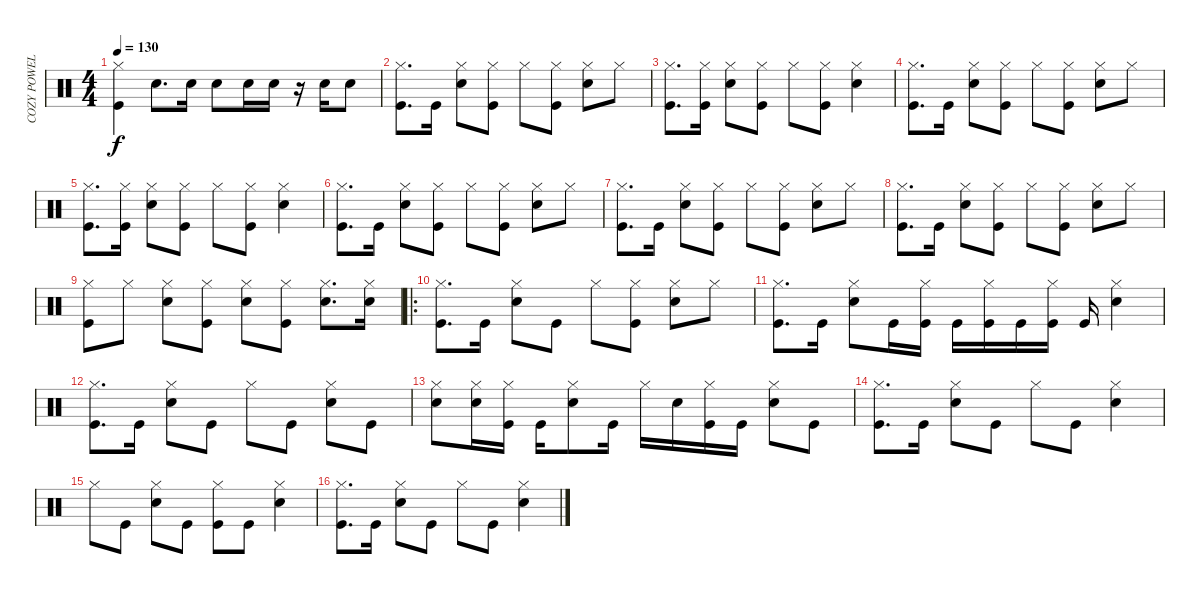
\track ("COZY POWELL" "COZY POWEL") {instrument percussion}
\staff {score}
\articulation defaults
\ts (4 4)
\tempo 130
\clef neutral
\ks c
("Hi-Hat (closed)" "Kick (hit)").4{dy f} "Snare (hit) 2".8{d} "Snare (hit) 2".16 "Snare (hit) 2".8 "Snare (hit) 2".16 "Snare (hit) 2".16 r.16 "Snare (hit) 2".16 "Snare (hit) 2".8 |
("Hi-Hat (closed)" "Kick (hit)").8{d} "Kick (hit)".16 ("Hi-Hat (closed)" "Snare (hit) 2").8 ("Hi-Hat (closed)" "Kick (hit)").8 "Hi-Hat (closed)".8 ("Hi-Hat (closed)" "Kick (hit)").8 ("Hi-Hat (closed)" "Snare (hit) 2").8 "Hi-Hat (closed)".8 |
("Hi-Hat (closed)" "Kick (hit)").8{d} ("Hi-Hat (closed)" "Kick (hit)").16 ("Hi-Hat (closed)" "Snare (hit) 2").8 ("Hi-Hat (closed)" "Kick (hit)").8 "Hi-Hat (closed)".8 ("Hi-Hat (closed)" "Kick (hit)").8 ("Hi-Hat (closed)" "Snare (hit) 2").4 |
("Hi-Hat (closed)" "Kick (hit)").8{d} "Kick (hit)".16 ("Hi-Hat (closed)" "Snare (hit) 2").8 ("Hi-Hat (closed)" "Kick (hit)").8 "Hi-Hat (closed)".8 ("Hi-Hat (closed)" "Kick (hit)").8 ("Hi-Hat (closed)" "Snare (hit) 2").8 "Hi-Hat (closed)".8 |
("Hi-Hat (closed)" "Kick (hit)").8{d} ("Hi-Hat (closed)" "Kick (hit)").16 ("Hi-Hat (closed)" "Snare (hit) 2").8 ("Hi-Hat (closed)" "Kick (hit)").8 "Hi-Hat (closed)".8 ("Hi-Hat (closed)" "Kick (hit)").8 ("Hi-Hat (closed)" "Snare (hit) 2").4 |
("Hi-Hat (closed)" "Kick (hit)").8{d} "Kick (hit)".16 ("Hi-Hat (closed)" "Snare (hit) 2").8 ("Hi-Hat (closed)" "Kick (hit)").8 "Hi-Hat (closed)".8 ("Hi-Hat (closed)" "Kick (hit)").8 ("Hi-Hat (closed)" "Snare (hit) 2").8 "Hi-Hat (closed)".8 |
("Hi-Hat (closed)" "Kick (hit)").8{d} "Kick (hit)".16 ("Hi-Hat (closed)" "Snare (hit) 2").8 ("Hi-Hat (closed)" "Kick (hit)").8 "Hi-Hat (closed)".8 ("Hi-Hat (closed)" "Kick (hit)").8 ("Hi-Hat (closed)" "Snare (hit) 2").8 "Hi-Hat (closed)".8 |
("Hi-Hat (closed)" "Kick (hit)").8{d} "Kick (hit)".16 ("Hi-Hat (closed)" "Snare (hit) 2").8 ("Hi-Hat (closed)" "Kick (hit)").8 "Hi-Hat (closed)".8 ("Hi-Hat (closed)" "Kick (hit)").8 ("Hi-Hat (closed)" "Snare (hit) 2").8 "Hi-Hat (closed)".8 |
("Hi-Hat (closed)" "Kick (hit)").8 "Hi-Hat (closed)".8 ("Hi-Hat (closed)" "Snare (hit) 2").8 ("Hi-Hat (closed)" "Kick (hit)").8 ("Hi-Hat (closed)" "Snare (hit) 2").8 ("Hi-Hat (closed)" "Kick (hit)").8 ("Hi-Hat (closed)" "Snare (hit) 2").8{d} ("Hi-Hat (closed)" "Snare (hit) 2").16 |
\ro
("Hi-Hat (closed)" "Kick (hit)").8{d} "Kick (hit)".16 ("Hi-Hat (closed)" "Snare (hit) 2").8 "Kick (hit)".8 "Hi-Hat (closed)".8 ("Hi-Hat (closed)" "Kick (hit)").8 ("Hi-Hat (closed)" "Snare (hit) 2").8 "Hi-Hat (closed)".8 |
("Hi-Hat (closed)" "Kick (hit)").8{d} "Kick (hit)".16 ("Hi-Hat (closed)" "Snare (hit) 2").8 "Kick (hit)".16 ("Hi-Hat (closed)" "Kick (hit)").16 "Kick (hit)".16 ("Hi-Hat (closed)" "Kick (hit)").16 "Kick (hit)".16 ("Hi-Hat (closed)" "Kick (hit)").16 "Kick (hit)".16 ("Hi-Hat (closed)" "Snare (hit) 2").4 |
("Hi-Hat (closed)" "Kick (hit)").8{d} "Kick (hit)".16 ("Hi-Hat (closed)" "Snare (hit) 2").8 "Kick (hit)".8 "Hi-Hat (closed)".8 "Kick (hit)".8 ("Hi-Hat (closed)" "Snare (hit) 2").8 "Kick (hit)".8 |
("Hi-Hat (closed)" "Snare (hit) 2").8 ("Hi-Hat (closed)" "Snare (hit) 2").16 ("Hi-Hat (closed)" "Kick (hit)").16 "Kick (hit)".16 ("Hi-Hat (closed)" "Snare (hit) 2").8 "Kick (hit)".16 "Hi-Hat (closed)".16 "Snare (hit) 2".16 ("Hi-Hat (closed)" "Kick (hit)").16 "Kick (hit)".16 ("Hi-Hat (closed)" "Snare (hit) 2").8 "Kick (hit)".8 |
("Hi-Hat (closed)" "Kick (hit)").8{d} "Kick (hit)".16 ("Hi-Hat (closed)" "Snare (hit) 2").8 "Kick (hit)".8 "Hi-Hat (closed)".8 "Kick (hit)".8 ("Hi-Hat (closed)" "Snare (hit) 2").4 |
"Hi-Hat (closed)".8 "Kick (hit)".8 ("Hi-Hat (closed)" "Snare (hit) 2").8 "Kick (hit)".8 ("Hi-Hat (closed)" "Kick (hit)").8 "Kick (hit)".8 ("Hi-Hat (closed)" "Snare (hit) 2").4 |
("Hi-Hat (closed)" "Kick (hit)").8{d} "Kick (hit)".16 ("Hi-Hat (closed)" "Snare (hit) 2").8 "Kick (hit)".8 "Hi-Hat (closed)".8 "Kick (hit)".8 ("Hi-Hat (closed)" "Snare (hit) 2").4
